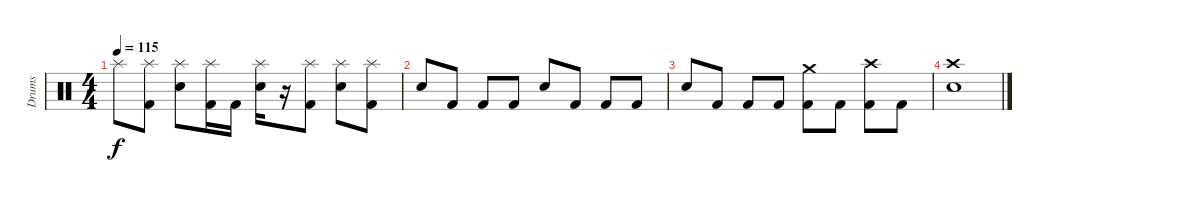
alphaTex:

\track ("Drums" "Drums") {instrument percussion}
\staff {score}
\articulation defaults
\ts (4 4)
\tempo 115
\clef neutral
\ks c "Splash (hit)".8{dy f}
("Splash (hit)" "Kick (hit) 2").8 ("Splash (hit)" "Snare (hit) 2").8 ("Splash (hit)" "Kick (hit) 2").16 "Kick (hit) 2".16 ("Splash (hit)" "Snare (hit) 2").16 r.16 ("Splash (hit)" "Kick (hit) 2").8 ("Splash (hit)" "Snare (hit) 2").8 ("Splash (hit)" "Kick (hit) 2").8 |
"Snare (hit) 2".8 "Kick (hit) 2".8 "Kick (hit) 2".8 "Kick (hit) 2".8 "Snare (hit) 2".8 "Kick (hit) 2".8 "Kick (hit) 2".8 "Kick (hit) 2".8 |
"Snare (hit) 2".8 "Kick (hit) 2".8 "Kick (hit) 2".8 "Kick (hit) 2".8 ("Crash medium (hit)" "Kick (hit) 2").8 "Kick (hit) 2".8 ("Crash high (hit)" "Kick (hit) 2").8 "Kick (hit) 2".8 |
("Crash high (hit)" "Snare (hit) 2").1
